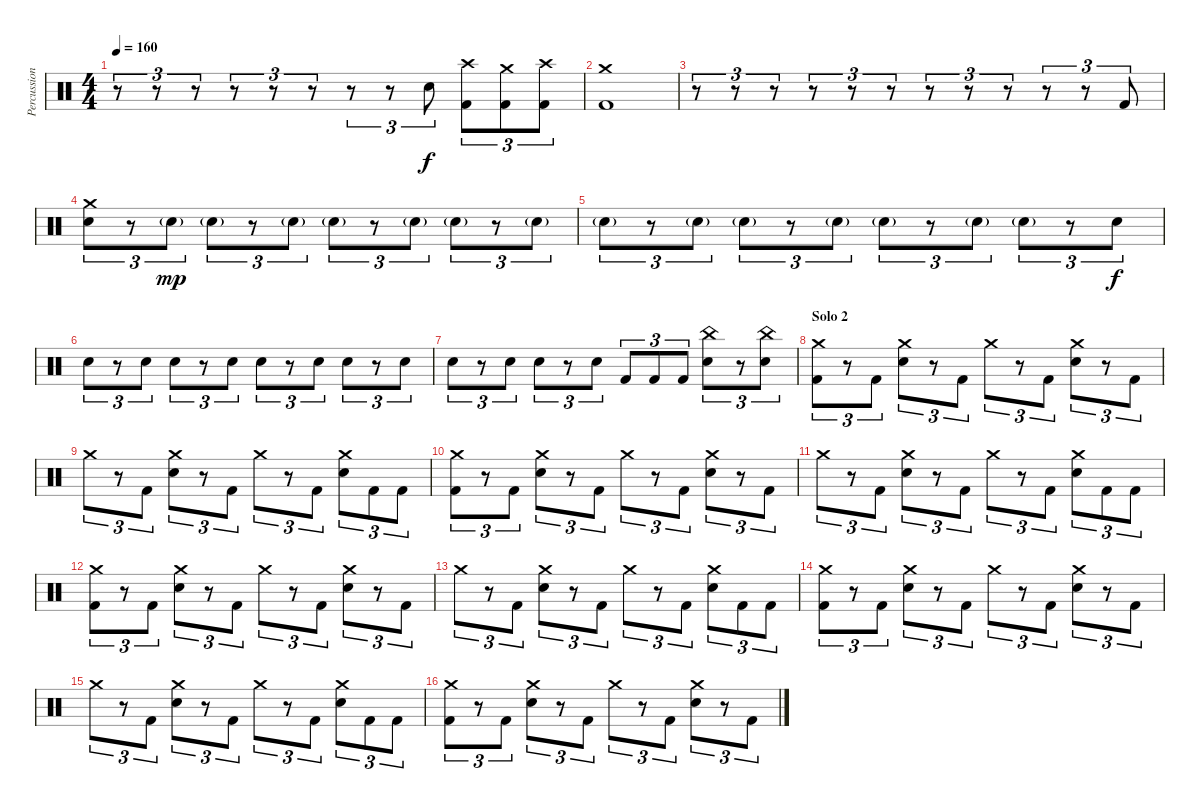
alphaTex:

\track ("Percussion" "Percussion") {instrument percussion}
\staff {score}
\articulation defaults
\ts (4 4)
\tempo 160
\clef neutral
\ks c
r.8{tu (3 2) dy f} r.8{tu (3 2)} r.8{tu (3 2)} r.8{tu (3 2)} r.8{tu (3 2)} r.8{tu (3 2)} r.8{tu (3 2)} r.8{tu (3 2)} "Electric Snare (hit)".8{tu (3 2)} ("Crash high (hit)" "Kick (hit) 2").8{tu (3 2)} ("Crash medium (hit)" "Kick (hit) 2").8{tu (3 2)} ("Crash high (hit)" "Kick (hit) 2").8{tu (3 2)} |
("Crash medium (hit)" "Kick (hit) 2").1 |
r.8{tu (3 2)} r.8{tu (3 2)} r.8{tu (3 2)} r.8{tu (3 2)} r.8{tu (3 2)} r.8{tu (3 2)} r.8{tu (3 2)} r.8{tu (3 2)} r.8{tu (3 2)} r.8{tu (3 2)} r.8{tu (3 2)} "Kick (hit) 2".8{tu (3 2)} |
("Crash medium (hit)" "Electric Snare (hit)").8{tu (3 2)} r.8{tu (3 2)} "Electric Snare (hit)"{g}.8{tu (3 2) dy mp} "Electric Snare (hit)"{g}.8{tu (3 2)} r.8{tu (3 2)} "Electric Snare (hit)"{g}.8{tu (3 2)} "Electric Snare (hit)"{g}.8{tu (3 2)} r.8{tu (3 2)} "Electric Snare (hit)"{g}.8{tu (3 2)} "Electric Snare (hit)"{g}.8{tu (3 2)} r.8{tu (3 2)} "Electric Snare (hit)"{g}.8{tu (3 2)} |
"Electric Snare (hit)"{g}.8{tu (3 2)} r.8{tu (3 2)} "Electric Snare (hit)"{g}.8{tu (3 2)} "Electric Snare (hit)"{g}.8{tu (3 2)} r.8{tu (3 2)} "Electric Snare (hit)"{g}.8{tu (3 2)} "Electric Snare (hit)"{g}.8{tu (3 2)} r.8{tu (3 2)} "Electric Snare (hit)"{g}.8{tu (3 2)} "Electric Snare (hit)"{g}.8{tu (3 2)} r.8{tu (3 2)} "Electric Snare (hit)".8{tu (3 2) dy f} |
"Electric Snare (hit)".8{tu (3 2)} r.8{tu (3 2)} "Electric Snare (hit)".8{tu (3 2)} "Electric Snare (hit)".8{tu (3 2)} r.8{tu (3 2)} "Electric Snare (hit)".8{tu (3 2)} "Electric Snare (hit)".8{tu (3 2)} r.8{tu (3 2)} "Electric Snare (hit)".8{tu (3 2)} "Electric Snare (hit)".8{tu (3 2)} r.8{tu (3 2)} "Electric Snare (hit)".8{tu (3 2)} |
"Electric Snare (hit)".8{tu (3 2)} r.8{tu (3 2)} "Electric Snare (hit)".8{tu (3 2)} "Electric Snare (hit)".8{tu (3 2)} r.8{tu (3 2)} "Electric Snare (hit)".8{tu (3 2)} "Kick (hit) 2".8{tu (3 2)} "Kick (hit) 2".8{tu (3 2)} "Kick (hit) 2".8{tu (3 2)} ("China (hit)" "Electric Snare (hit)").8{tu (3 2)} r.8{tu (3 2)} ("China (hit)" "Electric Snare (hit)").8{tu (3 2)} |
\section ("" "Solo 2")
("Crash medium (hit)" "Kick (hit) 2").8{tu (3 2)} r.8{tu (3 2)} "Kick (hit) 2".8{tu (3 2)} ("Crash medium (hit)" "Electric Snare (hit)").8{tu (3 2)} r.8{tu (3 2)} "Kick (hit) 2".8{tu (3 2)} "Crash medium (hit)".8{tu (3 2)} r.8{tu (3 2)} "Kick (hit) 2".8{tu (3 2)} ("Crash medium (hit)" "Electric Snare (hit)").8{tu (3 2)} r.8{tu (3 2)} "Kick (hit) 2".8{tu (3 2)} |
"Crash medium (hit)".8{tu (3 2)} r.8{tu (3 2)} "Kick (hit) 2".8{tu (3 2)} ("Crash medium (hit)" "Electric Snare (hit)").8{tu (3 2)} r.8{tu (3 2)} "Kick (hit) 2".8{tu (3 2)} "Crash medium (hit)".8{tu (3 2)} r.8{tu (3 2)} "Kick (hit) 2".8{tu (3 2)} ("Crash medium (hit)" "Electric Snare (hit)").8{tu (3 2)} "Kick (hit) 2".8{tu (3 2)} "Kick (hit) 2".8{tu (3 2)} |
("Crash medium (hit)" "Kick (hit) 2").8{tu (3 2)} r.8{tu (3 2)} "Kick (hit) 2".8{tu (3 2)} ("Crash medium (hit)" "Electric Snare (hit)").8{tu (3 2)} r.8{tu (3 2)} "Kick (hit) 2".8{tu (3 2)} "Crash medium (hit)".8{tu (3 2)} r.8{tu (3 2)} "Kick (hit) 2".8{tu (3 2)} ("Crash medium (hit)" "Electric Snare (hit)").8{tu (3 2)} r.8{tu (3 2)} "Kick (hit) 2".8{tu (3 2)} |
"Crash medium (hit)".8{tu (3 2)} r.8{tu (3 2)} "Kick (hit) 2".8{tu (3 2)} ("Crash medium (hit)" "Electric Snare (hit)").8{tu (3 2)} r.8{tu (3 2)} "Kick (hit) 2".8{tu (3 2)} "Crash medium (hit)".8{tu (3 2)} r.8{tu (3 2)} "Kick (hit) 2".8{tu (3 2)} ("Crash medium (hit)" "Electric Snare (hit)").8{tu (3 2)} "Kick (hit) 2".8{tu (3 2)} "Kick (hit) 2".8{tu (3 2)} |
("Crash medium (hit)" "Kick (hit) 2").8{tu (3 2)} r.8{tu (3 2)} "Kick (hit) 2".8{tu (3 2)} ("Crash medium (hit)" "Electric Snare (hit)").8{tu (3 2)} r.8{tu (3 2)} "Kick (hit) 2".8{tu (3 2)} "Crash medium (hit)".8{tu (3 2)} r.8{tu (3 2)} "Kick (hit) 2".8{tu (3 2)} ("Crash medium (hit)" "Electric Snare (hit)").8{tu (3 2)} r.8{tu (3 2)} "Kick (hit) 2".8{tu (3 2)} |
"Crash medium (hit)".8{tu (3 2)} r.8{tu (3 2)} "Kick (hit) 2".8{tu (3 2)} ("Crash medium (hit)" "Electric Snare (hit)").8{tu (3 2)} r.8{tu (3 2)} "Kick (hit) 2".8{tu (3 2)} "Crash medium (hit)".8{tu (3 2)} r.8{tu (3 2)} "Kick (hit) 2".8{tu (3 2)} ("Crash medium (hit)" "Electric Snare (hit)").8{tu (3 2)} "Kick (hit) 2".8{tu (3 2)} "Kick (hit) 2".8{tu (3 2)} |
("Crash medium (hit)" "Kick (hit) 2").8{tu (3 2)} r.8{tu (3 2)} "Kick (hit) 2".8{tu (3 2)} ("Crash medium (hit)" "Electric Snare (hit)").8{tu (3 2)} r.8{tu (3 2)} "Kick (hit) 2".8{tu (3 2)} "Crash medium (hit)".8{tu (3 2)} r.8{tu (3 2)} "Kick (hit) 2".8{tu (3 2)} ("Crash medium (hit)" "Electric Snare (hit)").8{tu (3 2)} r.8{tu (3 2)} "Kick (hit) 2".8{tu (3 2)} |
"Crash medium (hit)".8{tu (3 2)} r.8{tu (3 2)} "Kick (hit) 2".8{tu (3 2)} ("Crash medium (hit)" "Electric Snare (hit)").8{tu (3 2)} r.8{tu (3 2)} "Kick (hit) 2".8{tu (3 2)} "Crash medium (hit)".8{tu (3 2)} r.8{tu (3 2)} "Kick (hit) 2".8{tu (3 2)} ("Crash medium (hit)" "Electric Snare (hit)").8{tu (3 2)} "Kick (hit) 2".8{tu (3 2)} "Kick (hit) 2".8{tu (3 2)} |
("Crash medium (hit)" "Kick (hit) 2").8{tu (3 2)} r.8{tu (3 2)} "Kick (hit) 2".8{tu (3 2)} ("Crash medium (hit)" "Electric Snare (hit)").8{tu (3 2)} r.8{tu (3 2)} "Kick (hit) 2".8{tu (3 2)} "Crash medium (hit)".8{tu (3 2)} r.8{tu (3 2)} "Kick (hit) 2".8{tu (3 2)} ("Crash medium (hit)" "Electric Snare (hit)").8{tu (3 2)} r.8{tu (3 2)} "Kick (hit) 2".8{tu (3 2)}
